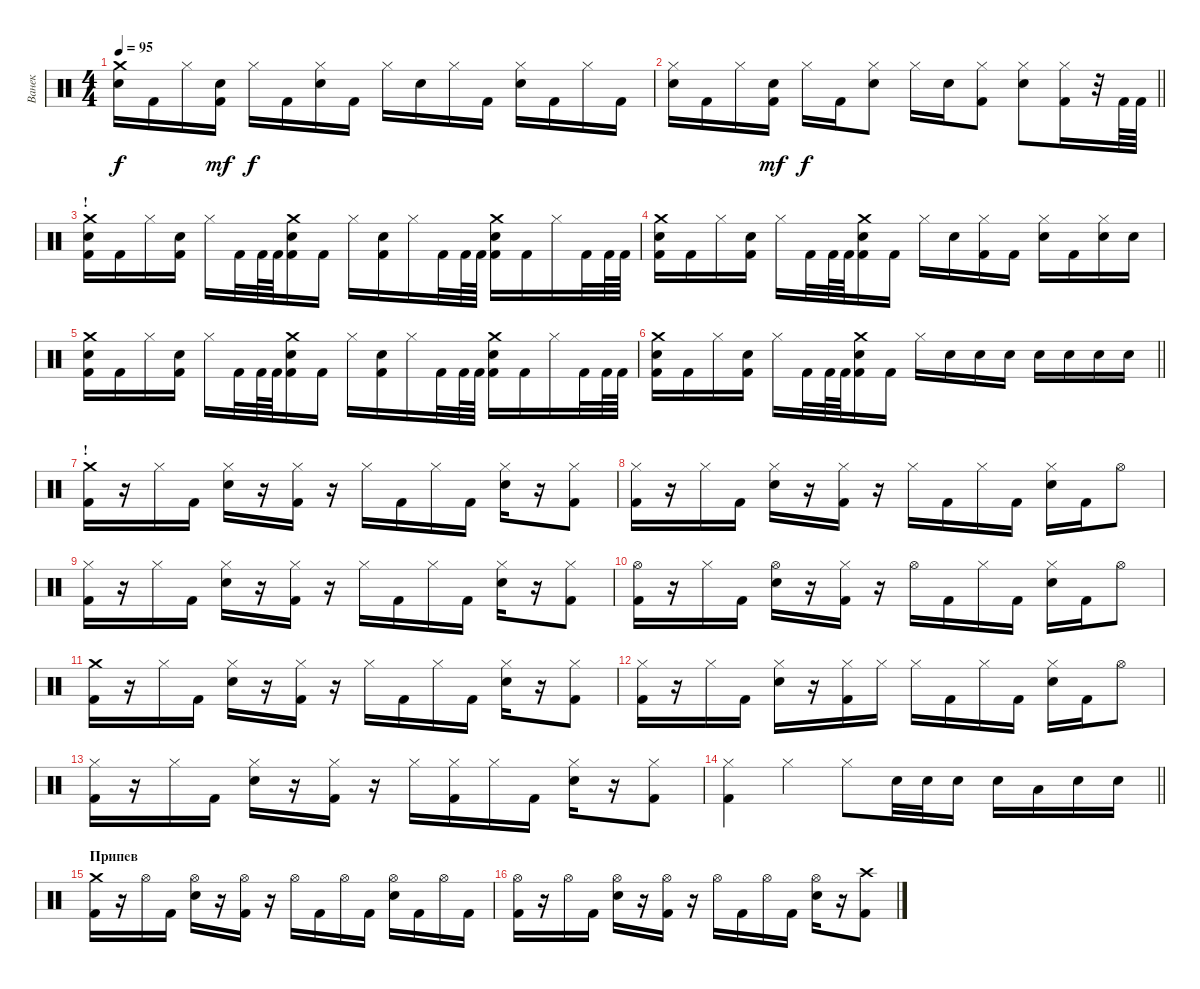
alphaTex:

\track ("Ванек" "Ванек") {instrument percussion}
\staff {score}
\articulation defaults
\ts (4 4)
\tempo 95
\clef neutral
\ks c
("Crash medium (hit)" "Snare (hit) 2").16{dy f} "Kick (hit) 2".16 "Hi-Hat (closed)".16 ("Snare (hit) 2" "Kick (hit) 2").16{dy mf} "Hi-Hat (closed)".16{dy f} "Kick (hit) 2".16 ("Hi-Hat (closed)" "Snare (hit) 2").16 "Kick (hit) 2".16 "Hi-Hat (closed)".16 "Snare (hit) 2".16 "Hi-Hat (closed)".16 "Kick (hit) 2".16 ("Hi-Hat (closed)" "Snare (hit) 2").16 "Kick (hit) 2".16 "Hi-Hat (closed)".16 "Kick (hit) 2".16 |
\barLineRight lightlight
("Hi-Hat (closed)" "Snare (hit) 2").16 "Kick (hit) 2".16 "Hi-Hat (closed)".16 ("Snare (hit) 2" "Kick (hit) 2").16{dy mf} "Hi-Hat (closed)".16{dy f} "Kick (hit) 2".16 ("Hi-Hat (closed)" "Snare (hit) 2").8 "Hi-Hat (closed)".16 "Snare (hit) 2".16 ("Hi-Hat (closed)" "Kick (hit) 2").8 ("Hi-Hat (closed)" "Snare (hit) 2").8 ("Hi-Hat (closed)" "Kick (hit) 2").16 r.32 "Kick (hit) 2".64 "Kick (hit) 2".64 |
\section ("" "!")
("Crash medium (hit)" "Snare (hit) 2" "Kick (hit) 2").16 "Kick (hit) 2".16 "Hi-Hat (closed)".16 ("Snare (hit) 2" "Kick (hit) 2").16 "Hi-Hat (closed)".16 "Kick (hit) 2".32 "Kick (hit) 2".64 "Kick (hit) 2".64 ("Crash medium (hit)" "Snare (hit) 2" "Kick (hit) 2").16 "Kick (hit) 2".16 "Hi-Hat (closed)".16 ("Snare (hit) 2" "Kick (hit) 2").16 "Hi-Hat (closed)".16 "Kick (hit) 2".32 "Kick (hit) 2".64 "Kick (hit) 2".64 ("Crash medium (hit)" "Snare (hit) 2" "Kick (hit) 2").16 "Kick (hit) 2".16 "Hi-Hat (closed)".16 "Kick (hit) 2".32 "Kick (hit) 2".64 "Kick (hit) 2".64 |
("Crash medium (hit)" "Snare (hit) 2" "Kick (hit) 2").16 "Kick (hit) 2".16 "Hi-Hat (closed)".16 ("Snare (hit) 2" "Kick (hit) 2").16 "Hi-Hat (closed)".16 "Kick (hit) 2".32 "Kick (hit) 2".64 "Kick (hit) 2".64 ("Crash medium (hit)" "Snare (hit) 2" "Kick (hit) 2").16 "Kick (hit) 2".16 "Hi-Hat (closed)".16 "Snare (hit) 2".16 ("Hi-Hat (closed)" "Kick (hit) 2").16 "Kick (hit) 2".16 ("Hi-Hat (closed)" "Snare (hit) 2").16 "Kick (hit) 2".16 ("Hi-Hat (closed)" "Snare (hit) 2").16 "Snare (hit) 2".16 |
("Crash medium (hit)" "Snare (hit) 2" "Kick (hit) 2").16 "Kick (hit) 2".16 "Hi-Hat (closed)".16 ("Snare (hit) 2" "Kick (hit) 2").16 "Hi-Hat (closed)".16 "Kick (hit) 2".32 "Kick (hit) 2".64 "Kick (hit) 2".64 ("Crash medium (hit)" "Snare (hit) 2" "Kick (hit) 2").16 "Kick (hit) 2".16 "Hi-Hat (closed)".16 ("Snare (hit) 2" "Kick (hit) 2").16 "Hi-Hat (closed)".16 "Kick (hit) 2".32 "Kick (hit) 2".64 "Kick (hit) 2".64 ("Crash medium (hit)" "Snare (hit) 2" "Kick (hit) 2").16 "Kick (hit) 2".16 "Hi-Hat (closed)".16 "Kick (hit) 2".32 "Kick (hit) 2".64 "Kick (hit) 2".64 |
\barLineRight lightlight
("Crash medium (hit)" "Snare (hit) 2" "Kick (hit) 2").16 "Kick (hit) 2".16 "Hi-Hat (closed)".16 ("Snare (hit) 2" "Kick (hit) 2").16 "Hi-Hat (closed)".16 "Kick (hit) 2".32 "Kick (hit) 2".64 "Kick (hit) 2".64 ("Crash medium (hit)" "Snare (hit) 2" "Kick (hit) 2").16 "Kick (hit) 2".16 "Hi-Hat (closed)".16 "Snare (hit) 2".16 "Snare (hit) 2".16 "Snare (hit) 2".16 "Snare (hit) 2".16 "Snare (hit) 2".16 "Snare (hit) 2".16 "Snare (hit) 2".16 |
\section ("" "!")
("Crash medium (hit)" "Kick (hit) 2").16 r.16 "Hi-Hat (closed)".16 "Kick (hit) 2".16 ("Hi-Hat (closed)" "Snare (hit) 2").16 r.16 ("Hi-Hat (closed)" "Kick (hit) 2").16 r.16 "Hi-Hat (closed)".16 "Kick (hit) 2".16 "Hi-Hat (closed)".16 "Kick (hit) 2".16 ("Hi-Hat (closed)" "Snare (hit) 2").16 r.16 ("Hi-Hat (closed)" "Kick (hit) 2").8 |
("Hi-Hat (closed)" "Kick (hit) 2").16 r.16 "Hi-Hat (closed)".16 "Kick (hit) 2".16 ("Hi-Hat (closed)" "Snare (hit) 2").16 r.16 ("Hi-Hat (closed)" "Kick (hit) 2").16 r.16 "Hi-Hat (closed)".16 "Kick (hit) 2".16 "Hi-Hat (closed)".16 "Kick (hit) 2".16 ("Hi-Hat (closed)" "Snare (hit) 2").16 "Kick (hit) 2".16 "Hi-Hat (open)".8 |
("Hi-Hat (closed)" "Kick (hit) 2").16 r.16 "Hi-Hat (closed)".16 "Kick (hit) 2".16 ("Hi-Hat (closed)" "Snare (hit) 2").16 r.16 ("Hi-Hat (closed)" "Kick (hit) 2").16 r.16 "Hi-Hat (closed)".16 "Kick (hit) 2".16 "Hi-Hat (closed)".16 "Kick (hit) 2".16 ("Hi-Hat (closed)" "Snare (hit) 2").16 r.16 ("Hi-Hat (closed)" "Kick (hit) 2").8 |
("Hi-Hat (open)" "Kick (hit) 2").16 r.16 "Hi-Hat (closed)".16 "Kick (hit) 2".16 ("Hi-Hat (open)" "Snare (hit) 2").16 r.16 ("Hi-Hat (closed)" "Kick (hit) 2").16 r.16 "Hi-Hat (open)".16 "Kick (hit) 2".16 "Hi-Hat (closed)".16 "Kick (hit) 2".16 ("Hi-Hat (closed)" "Snare (hit) 2").16 "Kick (hit) 2".16 "Hi-Hat (open)".8 |
("Crash medium (hit)" "Kick (hit) 2").16 r.16 "Hi-Hat (closed)".16 "Kick (hit) 2".16 ("Hi-Hat (closed)" "Snare (hit) 2").16 r.16 ("Hi-Hat (closed)" "Kick (hit) 2").16 r.16 "Hi-Hat (closed)".16 "Kick (hit) 2".16 "Hi-Hat (closed)".16 "Kick (hit) 2".16 ("Hi-Hat (closed)" "Snare (hit) 2").16 r.16 ("Hi-Hat (closed)" "Kick (hit) 2").8 |
("Hi-Hat (closed)" "Kick (hit) 2").16 r.16 "Hi-Hat (closed)".16 "Kick (hit) 2".16 ("Hi-Hat (closed)" "Snare (hit) 2").16 r.16 ("Hi-Hat (closed)" "Kick (hit) 2").16 "Hi-Hat (closed)".16 "Hi-Hat (closed)".16 "Kick (hit) 2".16 "Hi-Hat (closed)".16 "Kick (hit) 2".16 ("Hi-Hat (closed)" "Snare (hit) 2").16 "Kick (hit) 2".16 "Hi-Hat (open)".8 |
("Hi-Hat (closed)" "Kick (hit) 2").16 r.16 "Hi-Hat (closed)".16 "Kick (hit) 2".16 ("Hi-Hat (closed)" "Snare (hit) 2").16 r.16 ("Hi-Hat (closed)" "Kick (hit) 2").16 r.16 "Hi-Hat (closed)".16 ("Hi-Hat (closed)" "Kick (hit) 2").16 "Hi-Hat (closed)".16 "Kick (hit) 2".16 ("Hi-Hat (closed)" "Snare (hit) 2").16 r.16 ("Hi-Hat (closed)" "Kick (hit) 2").8 |
\barLineRight lightlight
("Hi-Hat (closed)" "Kick (hit) 2").4 "Hi-Hat (closed)".4 "Hi-Hat (closed)".8 "Snare (hit) 2".32 "Snare (hit) 2".32 "Snare (hit) 2".16 "Snare (hit) 2".16 "Low Floor Tom (hit)".16 "Snare (hit) 2".16 "Snare (hit) 2".16 |
\section ("" "Припев")
("Crash medium (hit)" "Kick (hit) 2").16 r.16 "Hi-Hat (open)".16 "Kick (hit) 2".16 ("Hi-Hat (open)" "Snare (hit) 2").16 r.16 ("Hi-Hat (open)" "Kick (hit) 2").16 r.16 "Hi-Hat (open)".16 "Kick (hit) 2".16 "Hi-Hat (open)".16 "Kick (hit) 2".16 ("Hi-Hat (open)" "Snare (hit) 2").16 "Kick (hit) 2".16 "Hi-Hat (open)".16 "Kick (hit) 2".16 |
("Hi-Hat (open)" "Kick (hit) 2").16 r.16 "Hi-Hat (open)".16 "Kick (hit) 2".16 ("Hi-Hat (open)" "Snare (hit) 2").16 r.16 ("Hi-Hat (open)" "Kick (hit) 2").16 r.16 "Hi-Hat (open)".16 "Kick (hit) 2".16 "Hi-Hat (open)".16 "Kick (hit) 2".16 ("Hi-Hat (open)" "Snare (hit) 2").16 r.16 ("Crash high (hit)" "Kick (hit) 2").8
